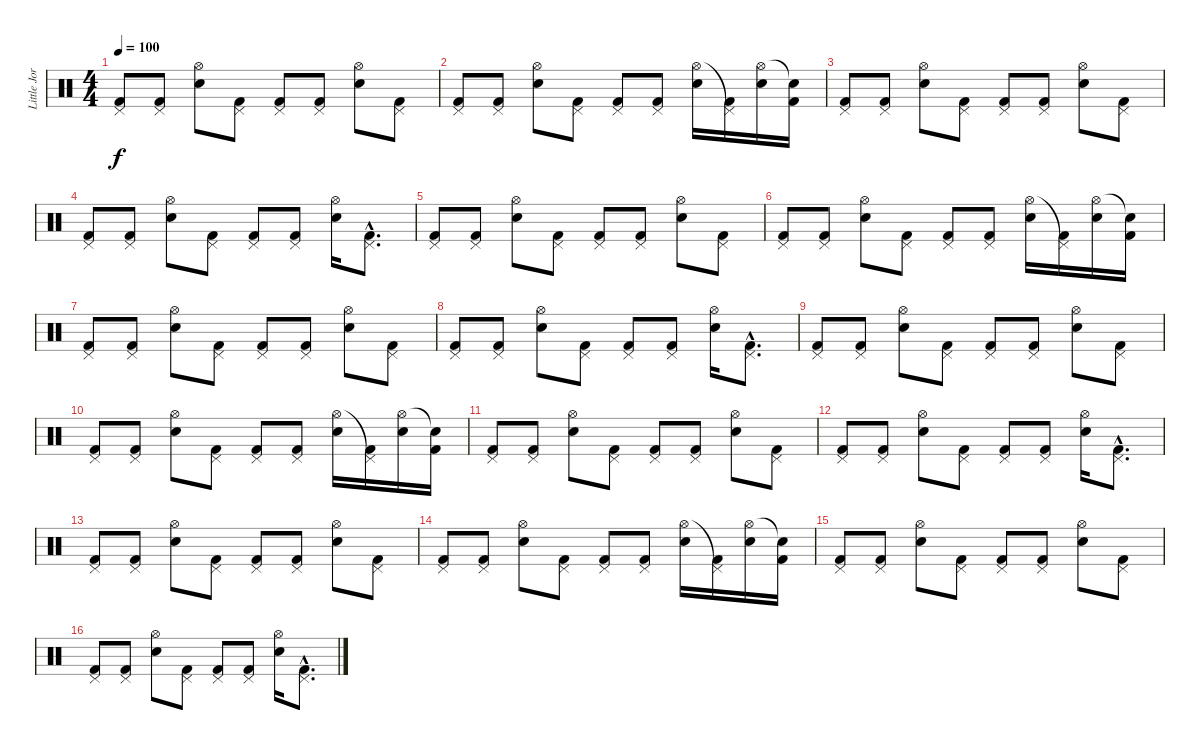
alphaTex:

\track ("Little JorDiSoN" "Little Jor") {instrument percussion}
\staff {score}
\articulation defaults
\ts (4 4)
\tempo 100
\clef neutral
\ks c
("Pedal Hi-Hat (hit)" "Kick (hit) 2").8{dy f} ("Pedal Hi-Hat (hit)" "Kick (hit) 2").8 ("Hi-Hat (open)" "Electric Snare (hit)").8 ("Pedal Hi-Hat (hit)" "Kick (hit) 2").8 ("Pedal Hi-Hat (hit)" "Kick (hit) 2").8 ("Pedal Hi-Hat (hit)" "Kick (hit) 2").8 ("Hi-Hat (open)" "Electric Snare (hit)").8 ("Pedal Hi-Hat (hit)" "Kick (hit) 2").8 |
("Pedal Hi-Hat (hit)" "Kick (hit) 2").8 ("Pedal Hi-Hat (hit)" "Kick (hit) 2").8 ("Hi-Hat (open)" "Electric Snare (hit)").8 ("Pedal Hi-Hat (hit)" "Kick (hit) 2").8 ("Pedal Hi-Hat (hit)" "Kick (hit) 2").8 ("Pedal Hi-Hat (hit)" "Kick (hit) 2").8 ("Hi-Hat (open)" "Electric Snare (hit)").16 ("Pedal Hi-Hat (hit)"{t} "Kick (hit) 2").16 ("Hi-Hat (open)" "Electric Snare (hit)").16 ("Snare (hit)"{t} "Kick (hit) 2").16 |
("Pedal Hi-Hat (hit)" "Kick (hit) 2").8 ("Pedal Hi-Hat (hit)" "Kick (hit) 2").8 ("Hi-Hat (open)" "Electric Snare (hit)").8 ("Pedal Hi-Hat (hit)" "Kick (hit) 2").8 ("Pedal Hi-Hat (hit)" "Kick (hit) 2").8 ("Pedal Hi-Hat (hit)" "Kick (hit) 2").8 ("Hi-Hat (open)" "Electric Snare (hit)").8 ("Pedal Hi-Hat (hit)" "Kick (hit) 2").8 |
("Pedal Hi-Hat (hit)" "Kick (hit) 2").8 ("Pedal Hi-Hat (hit)" "Kick (hit) 2").8 ("Hi-Hat (open)" "Electric Snare (hit)").8 ("Pedal Hi-Hat (hit)" "Kick (hit) 2").8 ("Pedal Hi-Hat (hit)" "Kick (hit) 2").8 ("Pedal Hi-Hat (hit)" "Kick (hit) 2").8 ("Hi-Hat (open)" "Electric Snare (hit)").16 ("Pedal Hi-Hat (hit)"{hac} "Kick (hit) 2"{hac}).8{d} |
("Pedal Hi-Hat (hit)" "Kick (hit) 2").8 ("Pedal Hi-Hat (hit)" "Kick (hit) 2").8 ("Hi-Hat (open)" "Electric Snare (hit)").8 ("Pedal Hi-Hat (hit)" "Kick (hit) 2").8 ("Pedal Hi-Hat (hit)" "Kick (hit) 2").8 ("Pedal Hi-Hat (hit)" "Kick (hit) 2").8 ("Hi-Hat (open)" "Electric Snare (hit)").8 ("Pedal Hi-Hat (hit)" "Kick (hit) 2").8 |
("Pedal Hi-Hat (hit)" "Kick (hit) 2").8 ("Pedal Hi-Hat (hit)" "Kick (hit) 2").8 ("Hi-Hat (open)" "Electric Snare (hit)").8 ("Pedal Hi-Hat (hit)" "Kick (hit) 2").8 ("Pedal Hi-Hat (hit)" "Kick (hit) 2").8 ("Pedal Hi-Hat (hit)" "Kick (hit) 2").8 ("Hi-Hat (open)" "Electric Snare (hit)").16 ("Pedal Hi-Hat (hit)"{t} "Kick (hit) 2").16 ("Hi-Hat (open)" "Electric Snare (hit)").16 ("Snare (hit)"{t} "Kick (hit) 2").16 |
("Pedal Hi-Hat (hit)" "Kick (hit) 2").8 ("Pedal Hi-Hat (hit)" "Kick (hit) 2").8 ("Hi-Hat (open)" "Electric Snare (hit)").8 ("Pedal Hi-Hat (hit)" "Kick (hit) 2").8 ("Pedal Hi-Hat (hit)" "Kick (hit) 2").8 ("Pedal Hi-Hat (hit)" "Kick (hit) 2").8 ("Hi-Hat (open)" "Electric Snare (hit)").8 ("Pedal Hi-Hat (hit)" "Kick (hit) 2").8 |
("Pedal Hi-Hat (hit)" "Kick (hit) 2").8 ("Pedal Hi-Hat (hit)" "Kick (hit) 2").8 ("Hi-Hat (open)" "Electric Snare (hit)").8 ("Pedal Hi-Hat (hit)" "Kick (hit) 2").8 ("Pedal Hi-Hat (hit)" "Kick (hit) 2").8 ("Pedal Hi-Hat (hit)" "Kick (hit) 2").8 ("Hi-Hat (open)" "Electric Snare (hit)").16 ("Pedal Hi-Hat (hit)"{hac} "Kick (hit) 2"{hac}).8{d} |
("Pedal Hi-Hat (hit)" "Kick (hit) 2").8 ("Pedal Hi-Hat (hit)" "Kick (hit) 2").8 ("Hi-Hat (open)" "Electric Snare (hit)").8 ("Pedal Hi-Hat (hit)" "Kick (hit) 2").8 ("Pedal Hi-Hat (hit)" "Kick (hit) 2").8 ("Pedal Hi-Hat (hit)" "Kick (hit) 2").8 ("Hi-Hat (open)" "Electric Snare (hit)").8 ("Pedal Hi-Hat (hit)" "Kick (hit) 2").8 |
("Pedal Hi-Hat (hit)" "Kick (hit) 2").8 ("Pedal Hi-Hat (hit)" "Kick (hit) 2").8 ("Hi-Hat (open)" "Electric Snare (hit)").8 ("Pedal Hi-Hat (hit)" "Kick (hit) 2").8 ("Pedal Hi-Hat (hit)" "Kick (hit) 2").8 ("Pedal Hi-Hat (hit)" "Kick (hit) 2").8 ("Hi-Hat (open)" "Electric Snare (hit)").16 ("Pedal Hi-Hat (hit)"{t} "Kick (hit) 2").16 ("Hi-Hat (open)" "Electric Snare (hit)").16 ("Snare (hit)"{t} "Kick (hit) 2").16 |
("Pedal Hi-Hat (hit)" "Kick (hit) 2").8 ("Pedal Hi-Hat (hit)" "Kick (hit) 2").8 ("Hi-Hat (open)" "Electric Snare (hit)").8 ("Pedal Hi-Hat (hit)" "Kick (hit) 2").8 ("Pedal Hi-Hat (hit)" "Kick (hit) 2").8 ("Pedal Hi-Hat (hit)" "Kick (hit) 2").8 ("Hi-Hat (open)" "Electric Snare (hit)").8 ("Pedal Hi-Hat (hit)" "Kick (hit) 2").8 |
("Pedal Hi-Hat (hit)" "Kick (hit) 2").8 ("Pedal Hi-Hat (hit)" "Kick (hit) 2").8 ("Hi-Hat (open)" "Electric Snare (hit)").8 ("Pedal Hi-Hat (hit)" "Kick (hit) 2").8 ("Pedal Hi-Hat (hit)" "Kick (hit) 2").8 ("Pedal Hi-Hat (hit)" "Kick (hit) 2").8 ("Hi-Hat (open)" "Electric Snare (hit)").16 ("Pedal Hi-Hat (hit)"{hac} "Kick (hit) 2"{hac}).8{d} |
("Pedal Hi-Hat (hit)" "Kick (hit) 2").8 ("Pedal Hi-Hat (hit)" "Kick (hit) 2").8 ("Hi-Hat (open)" "Electric Snare (hit)").8 ("Pedal Hi-Hat (hit)" "Kick (hit) 2").8 ("Pedal Hi-Hat (hit)" "Kick (hit) 2").8 ("Pedal Hi-Hat (hit)" "Kick (hit) 2").8 ("Hi-Hat (open)" "Electric Snare (hit)").8 ("Pedal Hi-Hat (hit)" "Kick (hit) 2").8 |
("Pedal Hi-Hat (hit)" "Kick (hit) 2").8 ("Pedal Hi-Hat (hit)" "Kick (hit) 2").8 ("Hi-Hat (open)" "Electric Snare (hit)").8 ("Pedal Hi-Hat (hit)" "Kick (hit) 2").8 ("Pedal Hi-Hat (hit)" "Kick (hit) 2").8 ("Pedal Hi-Hat (hit)" "Kick (hit) 2").8 ("Hi-Hat (open)" "Electric Snare (hit)").16 ("Pedal Hi-Hat (hit)"{t} "Kick (hit) 2").16 ("Hi-Hat (open)" "Electric Snare (hit)").16 ("Snare (hit)"{t} "Kick (hit) 2").16 |
("Pedal Hi-Hat (hit)" "Kick (hit) 2").8 ("Pedal Hi-Hat (hit)" "Kick (hit) 2").8 ("Hi-Hat (open)" "Electric Snare (hit)").8 ("Pedal Hi-Hat (hit)" "Kick (hit) 2").8 ("Pedal Hi-Hat (hit)" "Kick (hit) 2").8 ("Pedal Hi-Hat (hit)" "Kick (hit) 2").8 ("Hi-Hat (open)" "Electric Snare (hit)").8 ("Pedal Hi-Hat (hit)" "Kick (hit) 2").8 |
("Pedal Hi-Hat (hit)" "Kick (hit) 2").8 ("Pedal Hi-Hat (hit)" "Kick (hit) 2").8 ("Hi-Hat (open)" "Electric Snare (hit)").8 ("Pedal Hi-Hat (hit)" "Kick (hit) 2").8 ("Pedal Hi-Hat (hit)" "Kick (hit) 2").8 ("Pedal Hi-Hat (hit)" "Kick (hit) 2").8 ("Hi-Hat (open)" "Electric Snare (hit)").16 ("Pedal Hi-Hat (hit)"{hac} "Kick (hit) 2"{hac}).8{d}
